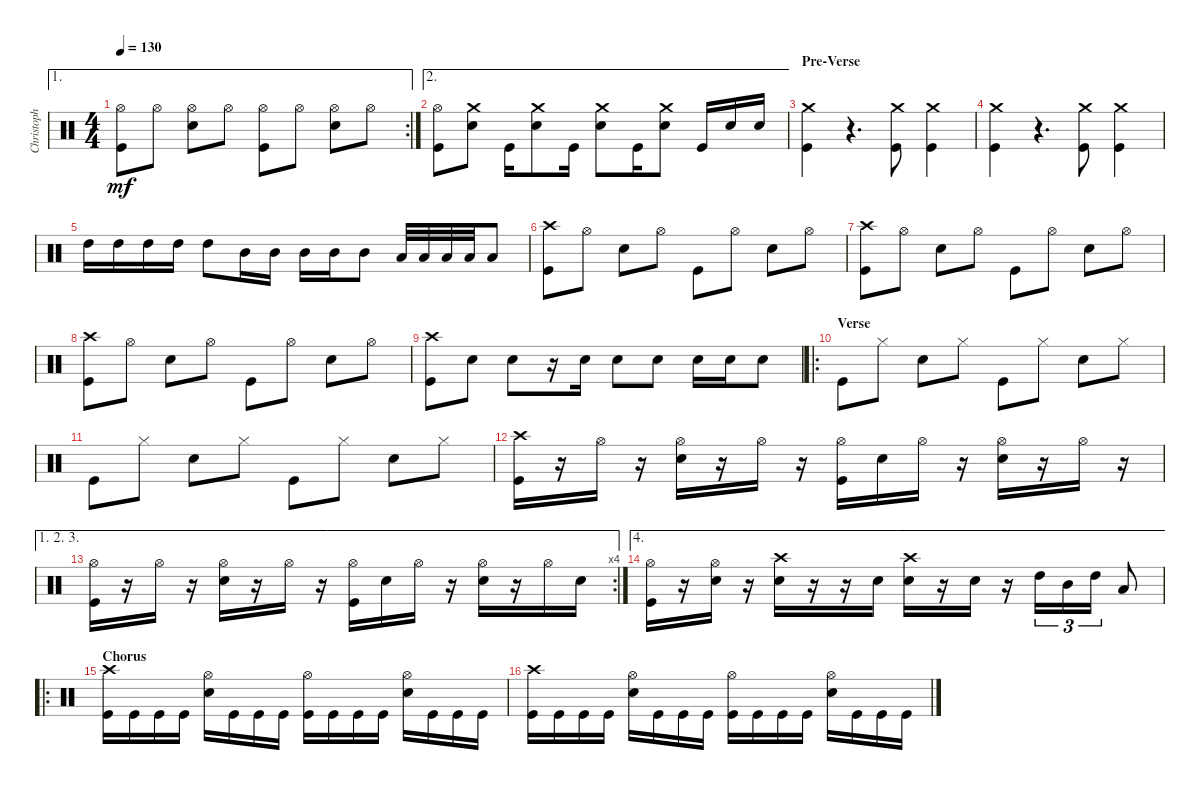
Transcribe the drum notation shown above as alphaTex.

\track ("Christoph Schneider" "Christoph ") {instrument percussion}
\staff {score}
\articulation defaults
\ae 1
\rc 2
\ts (4 4)
\tempo 130
\clef neutral
\ks c
("Hi-Hat (open)" "Kick (hit)").8{dy mf} "Hi-Hat (open)".8 ("Hi-Hat (open)" "Snare (hit) 2").8 "Hi-Hat (open)".8 ("Hi-Hat (open)" "Kick (hit)").8 "Hi-Hat (open)".8 ("Hi-Hat (open)" "Snare (hit) 2").8 "Hi-Hat (open)".8 |
\ae 2
("Hi-Hat (open)" "Kick (hit)").8 ("Crash medium (hit)" "Snare (hit) 2").8 "Kick (hit)".16 ("Crash medium (hit)" "Snare (hit) 2").8 "Kick (hit)".16 ("Crash medium (hit)" "Snare (hit) 2").8 "Kick (hit)".16 ("Crash medium (hit)" "Snare (hit) 2").8 "Kick (hit)".16 "Snare (hit) 2".16 "Snare (hit) 2".16 |
\section ("" "Pre-Verse")
("Crash medium (hit)" "Kick (hit)").4 r.4{d} ("Crash medium (hit)" "Kick (hit)").8 ("Crash medium (hit)" "Kick (hit)").4 |
("Crash medium (hit)" "Kick (hit)").4 r.4{d} ("Crash medium (hit)" "Kick (hit)").8 ("Crash medium (hit)" "Kick (hit)").4 |
"High Tom (hit)".16 "High Tom (hit)".16 "High Tom (hit)".16 "High Tom (hit)".16 "High Tom (hit)".8 "Mid Tom (hit)".16 "Mid Tom (hit)".16 "Mid Tom (hit)".16 "Mid Tom (hit)".16 "Mid Tom (hit)".8 "Low Floor Tom (hit)".32 "Low Floor Tom (hit)".32 "Low Floor Tom (hit)".32 "Low Floor Tom (hit)".32 "Low Floor Tom (hit)".8 |
("Crash high (hit)" "Kick (hit)").8 "Hi-Hat (open)".8 "Snare (hit) 2".8 "Hi-Hat (open)".8 "Kick (hit)".8 "Hi-Hat (open)".8 "Snare (hit) 2".8 "Hi-Hat (open)".8 |
("Crash high (hit)" "Kick (hit)").8 "Hi-Hat (open)".8 "Snare (hit) 2".8 "Hi-Hat (open)".8 "Kick (hit)".8 "Hi-Hat (open)".8 "Snare (hit) 2".8 "Hi-Hat (open)".8 |
("Crash high (hit)" "Kick (hit)").8 "Hi-Hat (open)".8 "Snare (hit) 2".8 "Hi-Hat (open)".8 "Kick (hit)".8 "Hi-Hat (open)".8 "Snare (hit) 2".8 "Hi-Hat (open)".8 |
("Crash high (hit)" "Kick (hit)").8 "Snare (hit) 2".8 "Snare (hit) 2".8 r.16 "Snare (hit) 2".16 "Snare (hit) 2".8 "Snare (hit) 2".8 "Snare (hit) 2".16 "Snare (hit) 2".16 "Snare (hit) 2".8 |
\ro
\section ("" "Verse")
"Kick (hit)".8 "Hi-Hat (closed)".8 "Snare (hit) 2".8 "Hi-Hat (closed)".8 "Kick (hit)".8 "Hi-Hat (closed)".8 "Snare (hit) 2".8 "Hi-Hat (closed)".8 |
"Kick (hit)".8 "Hi-Hat (closed)".8 "Snare (hit) 2".8 "Hi-Hat (closed)".8 "Kick (hit)".8 "Hi-Hat (closed)".8 "Snare (hit) 2".8 "Hi-Hat (closed)".8 |
("Crash high (hit)" "Kick (hit)").16 r.16 "Hi-Hat (open)".16 r.16 ("Hi-Hat (open)" "Snare (hit) 2").16 r.16 "Hi-Hat (open)".16 r.16 ("Hi-Hat (open)" "Kick (hit)").16 "Snare (hit) 2".16 "Hi-Hat (open)".16 r.16 ("Hi-Hat (open)" "Snare (hit) 2").16 r.16 "Hi-Hat (open)".16 r.16 |
\ae (1 2 3)
\rc 4
("Hi-Hat (open)" "Kick (hit)").16 r.16 "Hi-Hat (open)".16 r.16 ("Hi-Hat (open)" "Snare (hit) 2").16 r.16 "Hi-Hat (open)".16 r.16 ("Hi-Hat (open)" "Kick (hit)").16 "Snare (hit) 2".16 "Hi-Hat (open)".16 r.16 ("Hi-Hat (open)" "Snare (hit) 2").16 r.16 "Hi-Hat (open)".16 "Snare (hit) 2".16 |
\ae 4
("Hi-Hat (open)" "Kick (hit)").16 r.16 ("Hi-Hat (open)" "Snare (hit) 2").16 r.16 ("Crash high (hit)" "Snare (hit) 2").16 r.16 r.16 "Snare (hit) 2".16 ("Crash high (hit)" "Snare (hit) 2").16 r.16 "Snare (hit) 2".16 r.16 "High Tom (hit)".16{tu (3 2)} "Mid Tom (hit)".16{tu (3 2)} "High Tom (hit)".16{tu (3 2)} "Low Floor Tom (hit)".8 |
\ro
\section ("" "Chorus")
("Crash high (hit)" "Kick (hit)").16 "Kick (hit)".16 "Kick (hit)".16 "Kick (hit)".16 ("Hi-Hat (open)" "Snare (hit) 2").16 "Kick (hit)".16 "Kick (hit)".16 "Kick (hit)".16 ("Hi-Hat (open)" "Kick (hit)").16 "Kick (hit)".16 "Kick (hit)".16 "Kick (hit)".16 ("Hi-Hat (open)" "Snare (hit) 2").16 "Kick (hit)".16 "Kick (hit)".16 "Kick (hit)".16 |
("Crash high (hit)" "Kick (hit)").16 "Kick (hit)".16 "Kick (hit)".16 "Kick (hit)".16 ("Hi-Hat (open)" "Snare (hit) 2").16 "Kick (hit)".16 "Kick (hit)".16 "Kick (hit)".16 ("Hi-Hat (open)" "Kick (hit)").16 "Kick (hit)".16 "Kick (hit)".16 "Kick (hit)".16 ("Hi-Hat (open)" "Snare (hit) 2").16 "Kick (hit)".16 "Kick (hit)".16 "Kick (hit)".16
